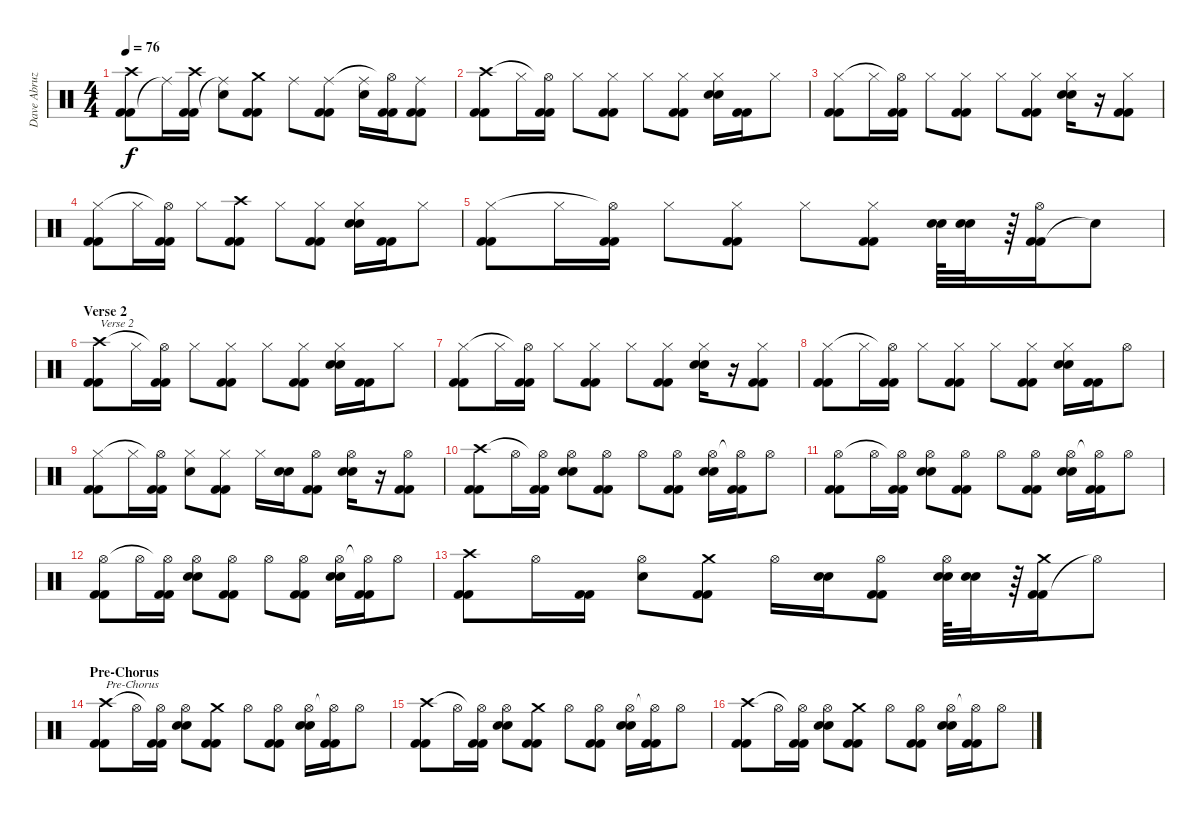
\track ("Dave Abruzzese" "Dave Abruz") {instrument percussion}
\staff {score}
\articulation defaults
\ts (4 4)
\tempo 76
\clef neutral
\ks c
("Kick (hit) 2" "Kick (hit) 2" "Crash high (hit)").8{dy f} "Ride (middle)"{t}.16 ("Kick (hit) 2" "Kick (hit) 2" "Crash high (hit)").16 ("Electric Snare (hit)" "Ride (middle)"{t}).8 ("Kick (hit) 2" "Kick (hit) 2" "Crash medium (hit)").8 "Ride (middle)".8 ("Kick (hit) 2" "Kick (hit) 2" "Ride (middle)").8 ("Electric Snare (hit)" "Ride (middle)").16 ("Kick (hit) 2" "Kick (hit) 2" "Hi-Hat (open)"{t}).16 ("Kick (hit) 2" "Kick (hit) 2" "Ride (middle)").8 |
\section ("" "")
("Kick (hit) 2" "Kick (hit) 2" "Crash high (hit)").8 "Hi-Hat (closed)".16 ("Kick (hit) 2" "Kick (hit) 2" "Hi-Hat (open)"{t}).16 "Hi-Hat (closed)".8 ("Kick (hit) 2" "Kick (hit) 2" "Hi-Hat (closed)").8 "Hi-Hat (closed)".8 ("Kick (hit) 2" "Kick (hit) 2" "Hi-Hat (closed)").8 ("Electric Snare (hit)" "Electric Snare (hit)" "Hi-Hat (closed)").16 ("Kick (hit) 2" "Kick (hit) 2").16 "Hi-Hat (closed)".8 |
("Kick (hit) 2" "Kick (hit) 2" "Hi-Hat (closed)").8 "Hi-Hat (closed)".16 ("Kick (hit) 2" "Kick (hit) 2" "Hi-Hat (open)"{t}).16 "Hi-Hat (closed)".8 ("Kick (hit) 2" "Kick (hit) 2" "Hi-Hat (closed)").8 "Hi-Hat (closed)".8 ("Kick (hit) 2" "Kick (hit) 2" "Hi-Hat (closed)").8 ("Electric Snare (hit)" "Electric Snare (hit)" "Hi-Hat (closed)").16 r.16 ("Kick (hit) 2" "Kick (hit) 2" "Hi-Hat (closed)").8 |
("Kick (hit) 2" "Kick (hit) 2" "Hi-Hat (closed)").8 "Hi-Hat (closed)".16 ("Kick (hit) 2" "Kick (hit) 2" "Hi-Hat (open)"{t}).16 "Hi-Hat (closed)".8 ("Kick (hit) 2" "Kick (hit) 2" "Crash high (hit)").8 "Hi-Hat (closed)".8 ("Kick (hit) 2" "Kick (hit) 2" "Hi-Hat (closed)").8 ("Electric Snare (hit)" "Electric Snare (hit)" "Hi-Hat (closed)").16 ("Kick (hit) 2" "Kick (hit) 2").16 "Hi-Hat (closed)".8 |
("Kick (hit) 2" "Kick (hit) 2" "Hi-Hat (closed)").8 "Hi-Hat (closed)".16 ("Kick (hit) 2" "Kick (hit) 2" "Hi-Hat (open)"{t}).16 "Hi-Hat (closed)".8 ("Kick (hit) 2" "Kick (hit) 2" "Hi-Hat (closed)").8 "Hi-Hat (closed)".8 ("Kick (hit) 2" "Kick (hit) 2" "Hi-Hat (closed)").8 ("Electric Snare (hit)" "Electric Snare (hit)").64 ("Electric Snare (hit)" "Electric Snare (hit)").32 r.64 ("Kick (hit) 2" "Kick (hit) 2" "Hi-Hat (open)").16 "Snare (hit)"{t}.8 |
\section ("" "Verse 2")
("Kick (hit) 2" "Kick (hit) 2" "Crash high (hit)").8{txt "Verse 2"} "Hi-Hat (closed)".16 ("Kick (hit) 2" "Kick (hit) 2" "Hi-Hat (open)"{t}).16 "Hi-Hat (closed)".8 ("Kick (hit) 2" "Kick (hit) 2" "Hi-Hat (closed)").8 "Hi-Hat (closed)".8 ("Kick (hit) 2" "Kick (hit) 2" "Hi-Hat (closed)").8 ("Electric Snare (hit)" "Electric Snare (hit)" "Hi-Hat (closed)").16 ("Kick (hit) 2" "Kick (hit) 2").16 "Hi-Hat (closed)".8 |
("Kick (hit) 2" "Kick (hit) 2" "Hi-Hat (closed)").8 "Hi-Hat (closed)".16 ("Kick (hit) 2" "Kick (hit) 2" "Hi-Hat (open)"{t}).16 "Hi-Hat (closed)".8 ("Kick (hit) 2" "Kick (hit) 2" "Hi-Hat (closed)").8 "Hi-Hat (closed)".8 ("Kick (hit) 2" "Kick (hit) 2" "Hi-Hat (closed)").8 ("Electric Snare (hit)" "Electric Snare (hit)" "Hi-Hat (closed)").16 r.16 ("Kick (hit) 2" "Kick (hit) 2" "Hi-Hat (closed)").8 |
("Kick (hit) 2" "Kick (hit) 2" "Hi-Hat (closed)").8 "Hi-Hat (closed)".16 ("Kick (hit) 2" "Kick (hit) 2" "Hi-Hat (open)"{t}).16 "Hi-Hat (closed)".8 ("Kick (hit) 2" "Kick (hit) 2" "Hi-Hat (closed)").8 "Hi-Hat (closed)".8 ("Kick (hit) 2" "Kick (hit) 2" "Hi-Hat (closed)").8 ("Electric Snare (hit)" "Electric Snare (hit)" "Hi-Hat (closed)").16 ("Kick (hit) 2" "Kick (hit) 2").16 "Hi-Hat (open)".8 |
("Kick (hit) 2" "Kick (hit) 2" "Hi-Hat (closed)").8 "Hi-Hat (closed)".16 ("Kick (hit) 2" "Kick (hit) 2" "Hi-Hat (open)"{t}).16 ("Electric Snare (hit)" "Hi-Hat (closed)").8 ("Kick (hit) 2" "Kick (hit) 2" "Hi-Hat (closed)").8 "Hi-Hat (closed)".16 ("Electric Snare (hit)" "Electric Snare (hit)").16 ("Kick (hit) 2" "Kick (hit) 2" "Hi-Hat (open)").8 ("Electric Snare (hit)" "Electric Snare (hit)" "Hi-Hat (open)").16 r.16 ("Kick (hit) 2" "Kick (hit) 2" "Hi-Hat (open)").8 |
("Kick (hit) 2" "Kick (hit) 2" "Crash high (hit)").8 "Hi-Hat (open)".16 ("Kick (hit) 2" "Kick (hit) 2" "Hi-Hat (open)"{t}).16 ("Electric Snare (hit)" "Electric Snare (hit)" "Hi-Hat (open)").8 ("Kick (hit) 2" "Kick (hit) 2" "Hi-Hat (open)").8 "Hi-Hat (open)".8 ("Kick (hit) 2" "Kick (hit) 2" "Hi-Hat (open)").8 ("Electric Snare (hit)" "Electric Snare (hit)" "Hi-Hat (open)").16 ("Kick (hit) 2" "Kick (hit) 2" "Hi-Hat (open)"{t}).16 "Hi-Hat (open)".8 |
("Kick (hit) 2" "Kick (hit) 2" "Hi-Hat (open)").8 "Hi-Hat (open)".16 ("Kick (hit) 2" "Kick (hit) 2" "Hi-Hat (open)"{t}).16 ("Electric Snare (hit)" "Electric Snare (hit)" "Hi-Hat (open)").8 ("Kick (hit) 2" "Kick (hit) 2" "Hi-Hat (open)").8 "Hi-Hat (open)".8 ("Kick (hit) 2" "Kick (hit) 2" "Hi-Hat (open)").8 ("Electric Snare (hit)" "Electric Snare (hit)" "Hi-Hat (open)").16 ("Kick (hit) 2" "Kick (hit) 2" "Hi-Hat (open)"{t}).16 "Hi-Hat (open)".8 |
("Kick (hit) 2" "Kick (hit) 2" "Hi-Hat (open)").8 "Hi-Hat (open)".16 ("Kick (hit) 2" "Kick (hit) 2" "Hi-Hat (open)"{t}).16 ("Electric Snare (hit)" "Electric Snare (hit)" "Hi-Hat (open)").8 ("Kick (hit) 2" "Kick (hit) 2" "Hi-Hat (open)").8 "Hi-Hat (open)".8 ("Kick (hit) 2" "Kick (hit) 2" "Hi-Hat (open)").8 ("Electric Snare (hit)" "Electric Snare (hit)" "Hi-Hat (open)").16 ("Kick (hit) 2" "Kick (hit) 2" "Hi-Hat (open)"{t}).16 "Hi-Hat (open)".8 |
("Kick (hit) 2" "Kick (hit) 2" "Crash high (hit)").8 "Hi-Hat (open)".16 ("Kick (hit) 2" "Kick (hit) 2").16 ("Electric Snare (hit)" "Hi-Hat (open)").8 ("Kick (hit) 2" "Kick (hit) 2" "Crash medium (hit)").8 "Hi-Hat (open)".16 ("Electric Snare (hit)" "Electric Snare (hit)").16 ("Kick (hit) 2" "Kick (hit) 2" "Hi-Hat (open)").8 ("Electric Snare (hit)" "Electric Snare (hit)" "Hi-Hat (open)").64 ("Electric Snare (hit)" "Electric Snare (hit)").32 r.64 ("Kick (hit) 2" "Kick (hit) 2" "Crash medium (hit)").16 "Hi-Hat (open)"{t}.8 |
\section ("" "Pre-Chorus")
("Kick (hit) 2" "Kick (hit) 2" "Crash high (hit)").8{txt "Pre-Chorus"} "Hi-Hat (open)".16 ("Kick (hit) 2" "Kick (hit) 2" "Hi-Hat (open)"{t}).16 ("Electric Snare (hit)" "Electric Snare (hit)" "Hi-Hat (open)").8 ("Kick (hit) 2" "Kick (hit) 2" "Crash medium (hit)").8 "Hi-Hat (open)".8 ("Kick (hit) 2" "Kick (hit) 2" "Hi-Hat (open)").8 ("Electric Snare (hit)" "Electric Snare (hit)" "Hi-Hat (open)").16 ("Kick (hit) 2" "Kick (hit) 2" "Hi-Hat (open)"{t}).16 "Hi-Hat (open)".8 |
("Kick (hit) 2" "Kick (hit) 2" "Crash high (hit)").8 "Hi-Hat (open)".16 ("Kick (hit) 2" "Kick (hit) 2" "Hi-Hat (open)"{t}).16 ("Electric Snare (hit)" "Electric Snare (hit)" "Hi-Hat (open)").8 ("Kick (hit) 2" "Kick (hit) 2" "Crash medium (hit)").8 "Hi-Hat (open)".8 ("Kick (hit) 2" "Kick (hit) 2" "Hi-Hat (open)").8 ("Electric Snare (hit)" "Electric Snare (hit)" "Hi-Hat (open)").16 ("Kick (hit) 2" "Kick (hit) 2" "Hi-Hat (open)"{t}).16 "Hi-Hat (open)".8 |
("Kick (hit) 2" "Kick (hit) 2" "Crash high (hit)").8 "Hi-Hat (open)".16 ("Kick (hit) 2" "Kick (hit) 2" "Hi-Hat (open)"{t}).16 ("Electric Snare (hit)" "Electric Snare (hit)" "Hi-Hat (open)").8 ("Kick (hit) 2" "Kick (hit) 2" "Crash medium (hit)").8 "Hi-Hat (open)".8 ("Kick (hit) 2" "Kick (hit) 2" "Hi-Hat (open)").8 ("Electric Snare (hit)" "Electric Snare (hit)" "Hi-Hat (open)").16 ("Kick (hit) 2" "Kick (hit) 2" "Hi-Hat (open)"{t}).16 "Hi-Hat (open)".8
